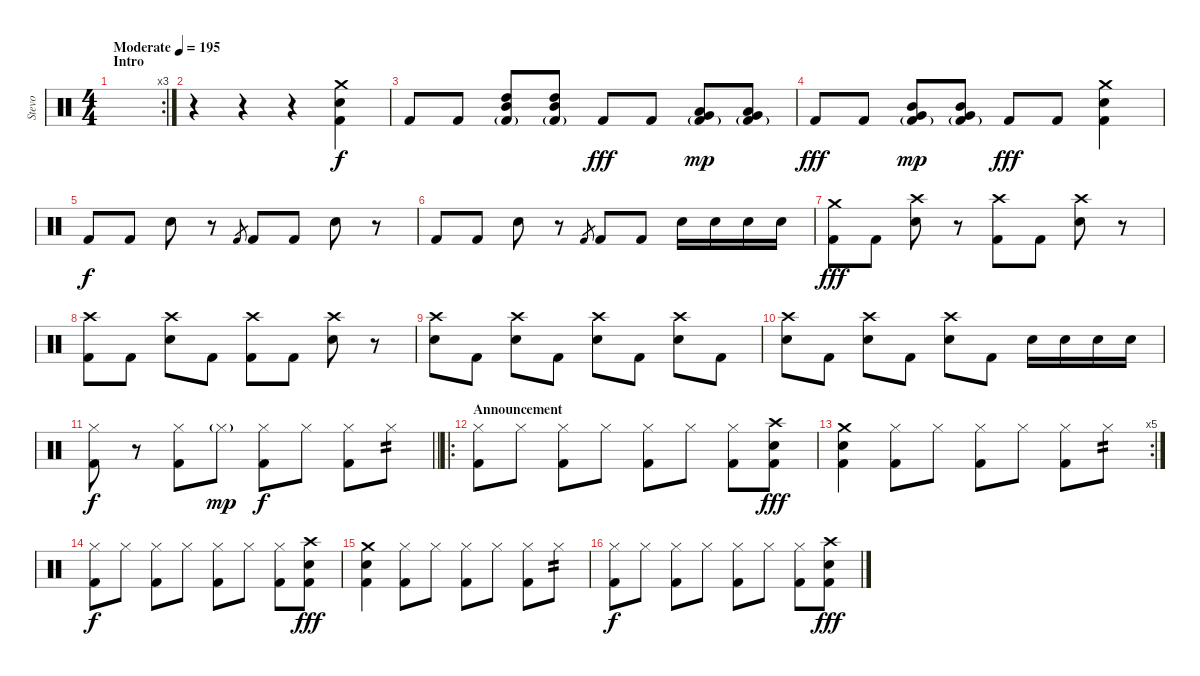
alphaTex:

\track ("Stevo" "Stevo") {instrument percussion}
\staff {score}
\articulation defaults
\rc 3
\ts (4 4)
\section ("" "Intro")
\tempo (195 "Moderate")
\clef neutral
\ks c
|
r.4 r.4 r.4 ("Crash medium (hit)" "Electric Snare (hit)" "Kick (hit) 2").4 |
"Kick (hit) 2".8{dy f} "Kick (hit) 2".8 ("High Tom (hit)" "Mid Tom (hit)" "Kick (hit) 2"{g}).8 ("High Tom (hit)" "Mid Tom (hit)" "Kick (hit) 2"{g}).8 "Kick (hit) 2".8{dy fff} "Kick (hit) 2".8 ("Very Low Tom (hit)" "Low Tom (hit)" "Kick (hit) 2"{g}).8{dy mp} ("Very Low Tom (hit)" "Low Tom (hit)" "Kick (hit) 2"{g}).8 |
"Kick (hit) 2".8{dy fff} "Kick (hit) 2".8 ("Very Low Tom (hit)" "Mid Tom (hit)" "Kick (hit) 2"{g}).8{dy mp} ("Very Low Tom (hit)" "Mid Tom (hit)" "Kick (hit) 2"{g}).8 "Kick (hit) 2".8{dy fff} "Kick (hit) 2".8 ("Crash medium (hit)" "Electric Snare (hit)" "Kick (hit) 2").4 |
"Kick (hit) 2".8{dy f} "Kick (hit) 2".8 "Electric Snare (hit)".8 r.8 "Kick (hit) 2".8{gr} "Kick (hit) 2".8 "Kick (hit) 2".8 "Electric Snare (hit)".8 r.8 |
"Kick (hit) 2".8 "Kick (hit) 2".8 "Electric Snare (hit)".8 r.8 "Kick (hit) 2".8{gr} "Kick (hit) 2".8 "Kick (hit) 2".8 "Electric Snare (hit)".16 "Electric Snare (hit)".16 "Electric Snare (hit)".16 "Electric Snare (hit)".16 |
("Crash medium (hit)" "Kick (hit) 2").8{dy fff} "Kick (hit) 2".8 ("Crash high (hit)" "Electric Snare (hit)").8 r.8 ("Crash high (hit)" "Kick (hit) 2").8 "Kick (hit) 2".8 ("Crash high (hit)" "Electric Snare (hit)").8 r.8 |
("Crash high (hit)" "Kick (hit) 2").8 "Kick (hit) 2".8 ("Crash high (hit)" "Electric Snare (hit)").8 "Kick (hit) 2".8 ("Crash high (hit)" "Kick (hit) 2").8 "Kick (hit) 2".8 ("Crash high (hit)" "Electric Snare (hit)").8 r.8 |
("Crash high (hit)" "Electric Snare (hit)").8 "Kick (hit) 2".8 ("Crash high (hit)" "Electric Snare (hit)").8 "Kick (hit) 2".8 ("Crash high (hit)" "Electric Snare (hit)").8 "Kick (hit) 2".8 ("Crash high (hit)" "Electric Snare (hit)").8 "Kick (hit) 2".8 |
("Crash high (hit)" "Electric Snare (hit)").8 "Kick (hit) 2".8 ("Crash high (hit)" "Electric Snare (hit)").8 "Kick (hit) 2".8 ("Crash high (hit)" "Electric Snare (hit)").8 "Kick (hit) 2".8 "Electric Snare (hit)".16 "Electric Snare (hit)".16 "Electric Snare (hit)".16 "Electric Snare (hit)".16 |
\barLineRight lightlight
("Hi-Hat (closed)" "Kick (hit) 2").8{dy f} r.8 ("Hi-Hat (closed)" "Kick (hit) 2").8 "Hi-Hat (closed)"{g}.8{dy mp} ("Hi-Hat (closed)" "Kick (hit) 2").8{dy f} "Hi-Hat (closed)".8 ("Hi-Hat (closed)" "Kick (hit) 2").8 "Hi-Hat (closed)".8{tp 2} |
\ro
\section ("" "Announcement")
("Hi-Hat (closed)" "Kick (hit) 2").8 "Hi-Hat (closed)".8 ("Hi-Hat (closed)" "Kick (hit) 2").8 "Hi-Hat (closed)".8 ("Hi-Hat (closed)" "Kick (hit) 2").8 "Hi-Hat (closed)".8 ("Hi-Hat (closed)" "Kick (hit) 2").8 ("Crash high (hit)" "Electric Snare (hit)" "Kick (hit) 2").8{dy fff} |
\rc 5
("Crash medium (hit)" "Electric Snare (hit)" "Kick (hit) 2").4 ("Hi-Hat (closed)" "Kick (hit) 2").8 "Hi-Hat (closed)".8 ("Hi-Hat (closed)" "Kick (hit) 2").8 "Hi-Hat (closed)".8 ("Hi-Hat (closed)" "Kick (hit) 2").8 "Hi-Hat (closed)".8{tp 2} |
("Hi-Hat (closed)" "Kick (hit) 2").8{dy f} "Hi-Hat (closed)".8 ("Hi-Hat (closed)" "Kick (hit) 2").8 "Hi-Hat (closed)".8 ("Hi-Hat (closed)" "Kick (hit) 2").8 "Hi-Hat (closed)".8 ("Hi-Hat (closed)" "Kick (hit) 2").8 ("Crash high (hit)" "Electric Snare (hit)" "Kick (hit) 2").8{dy fff} |
("Crash medium (hit)" "Electric Snare (hit)" "Kick (hit) 2").4 ("Hi-Hat (closed)" "Kick (hit) 2").8 "Hi-Hat (closed)".8 ("Hi-Hat (closed)" "Kick (hit) 2").8 "Hi-Hat (closed)".8 ("Hi-Hat (closed)" "Kick (hit) 2").8 "Hi-Hat (closed)".8{tp 2} |
("Hi-Hat (closed)" "Kick (hit) 2").8{dy f} "Hi-Hat (closed)".8 ("Hi-Hat (closed)" "Kick (hit) 2").8 "Hi-Hat (closed)".8 ("Hi-Hat (closed)" "Kick (hit) 2").8 "Hi-Hat (closed)".8 ("Hi-Hat (closed)" "Kick (hit) 2").8 ("Crash high (hit)" "Electric Snare (hit)" "Kick (hit) 2").8{dy fff}
